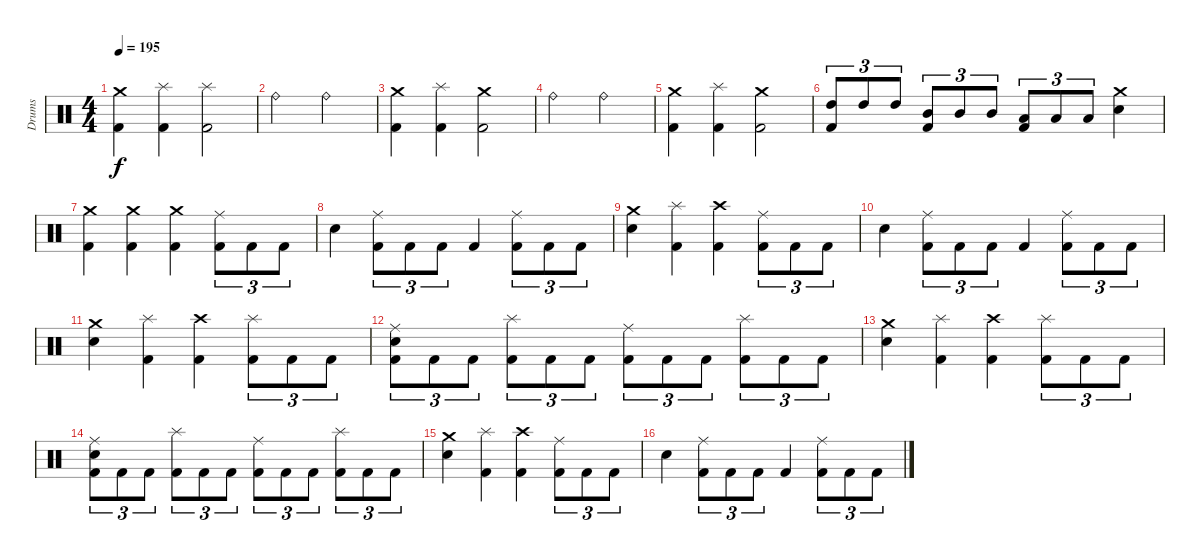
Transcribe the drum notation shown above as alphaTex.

\track ("Drums" "Drums") {instrument percussion}
\staff {score}
\articulation defaults
\ts (4 4)
\tempo 195
\clef neutral
\ks c
("Crash medium (hit)" "Kick (hit) 2").4{dy f} ("Splash (hit)" "Kick (hit) 2").4 ("Splash (hit)" "Kick (hit) 2").2 |
"Ride (bell)".2 "Ride (bell)".2 |
("Crash medium (hit)" "Kick (hit) 2").4 ("Splash (hit)" "Kick (hit) 2").4 ("Crash medium (hit)" "Kick (hit) 2").2 |
"Ride (bell)".2 "Ride (bell)".2 |
("Crash medium (hit)" "Kick (hit) 2").4 ("Splash (hit)" "Kick (hit) 2").4 ("Crash medium (hit)" "Kick (hit) 2").2 |
("High Tom (hit)" "Kick (hit) 2").8{tu (3 2)} "High Tom (hit)".8{tu (3 2)} "High Tom (hit)".8{tu (3 2)} ("Mid Tom (hit)" "Kick (hit) 2").8{tu (3 2)} "Mid Tom (hit)".8{tu (3 2)} "Mid Tom (hit)".8{tu (3 2)} ("Low Tom (hit)" "Kick (hit) 2").8{tu (3 2)} "Low Tom (hit)".8{tu (3 2)} "Low Tom (hit)".8{tu (3 2)} ("Crash medium (hit)" "Electric Snare (hit)").4 |
("Crash medium (hit)" "Kick (hit) 2").4 ("Crash medium (hit)" "Kick (hit) 2").4 ("Crash medium (hit)" "Kick (hit) 2").4 ("Ride (middle)" "Kick (hit) 2").8{tu (3 2)} "Kick (hit) 2".8{tu (3 2)} "Kick (hit) 2".8{tu (3 2)} |
"Electric Snare (hit)".4 ("Ride (middle)" "Kick (hit) 2").8{tu (3 2)} "Kick (hit) 2".8{tu (3 2)} "Kick (hit) 2".8{tu (3 2)} "Kick (hit) 2".4 ("Ride (middle)" "Kick (hit) 2").8{tu (3 2)} "Kick (hit) 2".8{tu (3 2)} "Kick (hit) 2".8{tu (3 2)} |
("Crash medium (hit)" "Electric Snare (hit)").4 ("Splash (hit)" "Kick (hit) 2").4 ("Crash high (hit)" "Kick (hit) 2").4 ("Ride (middle)" "Kick (hit) 2").8{tu (3 2)} "Kick (hit) 2".8{tu (3 2)} "Kick (hit) 2".8{tu (3 2)} |
"Electric Snare (hit)".4 ("Ride (middle)" "Kick (hit) 2").8{tu (3 2)} "Kick (hit) 2".8{tu (3 2)} "Kick (hit) 2".8{tu (3 2)} "Kick (hit) 2".4 ("Ride (middle)" "Kick (hit) 2").8{tu (3 2)} "Kick (hit) 2".8{tu (3 2)} "Kick (hit) 2".8{tu (3 2)} |
("Crash medium (hit)" "Electric Snare (hit)").4 ("Splash (hit)" "Kick (hit) 2").4 ("Crash high (hit)" "Kick (hit) 2").4 ("Splash (hit)" "Kick (hit) 2").8{tu (3 2)} "Kick (hit) 2".8{tu (3 2)} "Kick (hit) 2".8{tu (3 2)} |
("Ride (middle)" "Electric Snare (hit)" "Kick (hit) 2").8{tu (3 2)} "Kick (hit) 2".8{tu (3 2)} "Kick (hit) 2".8{tu (3 2)} ("Splash (hit)" "Kick (hit) 2").8{tu (3 2)} "Kick (hit) 2".8{tu (3 2)} "Kick (hit) 2".8{tu (3 2)} ("Ride (middle)" "Kick (hit) 2").8{tu (3 2)} "Kick (hit) 2".8{tu (3 2)} "Kick (hit) 2".8{tu (3 2)} ("Splash (hit)" "Kick (hit) 2").8{tu (3 2)} "Kick (hit) 2".8{tu (3 2)} "Kick (hit) 2".8{tu (3 2)} |
("Crash medium (hit)" "Electric Snare (hit)").4 ("Splash (hit)" "Kick (hit) 2").4 ("Crash high (hit)" "Kick (hit) 2").4 ("Splash (hit)" "Kick (hit) 2").8{tu (3 2)} "Kick (hit) 2".8{tu (3 2)} "Kick (hit) 2".8{tu (3 2)} |
("Ride (middle)" "Electric Snare (hit)" "Kick (hit) 2").8{tu (3 2)} "Kick (hit) 2".8{tu (3 2)} "Kick (hit) 2".8{tu (3 2)} ("Splash (hit)" "Kick (hit) 2").8{tu (3 2)} "Kick (hit) 2".8{tu (3 2)} "Kick (hit) 2".8{tu (3 2)} ("Ride (middle)" "Kick (hit) 2").8{tu (3 2)} "Kick (hit) 2".8{tu (3 2)} "Kick (hit) 2".8{tu (3 2)} ("Splash (hit)" "Kick (hit) 2").8{tu (3 2)} "Kick (hit) 2".8{tu (3 2)} "Kick (hit) 2".8{tu (3 2)} |
("Crash medium (hit)" "Electric Snare (hit)").4 ("Splash (hit)" "Kick (hit) 2").4 ("Crash high (hit)" "Kick (hit) 2").4 ("Ride (middle)" "Kick (hit) 2").8{tu (3 2)} "Kick (hit) 2".8{tu (3 2)} "Kick (hit) 2".8{tu (3 2)} |
"Electric Snare (hit)".4 ("Ride (middle)" "Kick (hit) 2").8{tu (3 2)} "Kick (hit) 2".8{tu (3 2)} "Kick (hit) 2".8{tu (3 2)} "Kick (hit) 2".4 ("Ride (middle)" "Kick (hit) 2").8{tu (3 2)} "Kick (hit) 2".8{tu (3 2)} "Kick (hit) 2".8{tu (3 2)}
